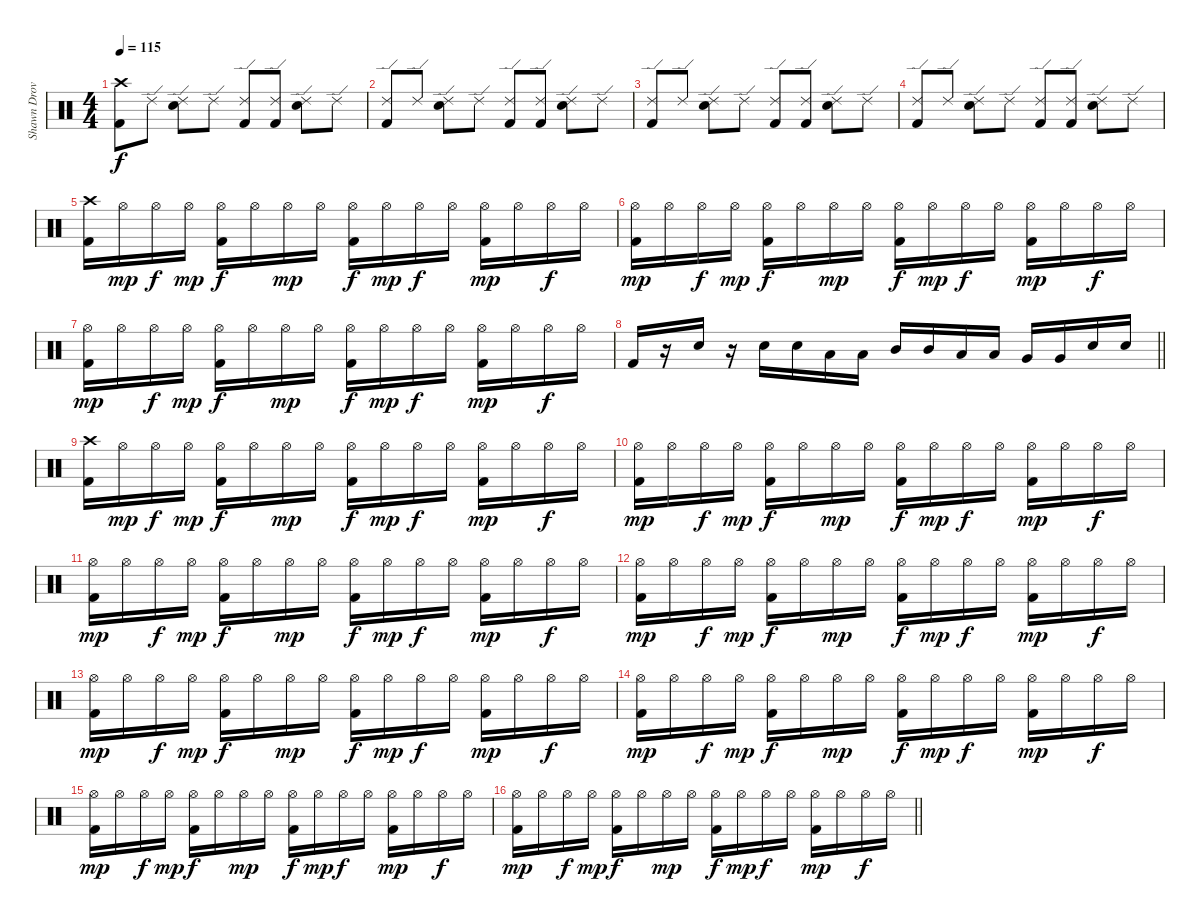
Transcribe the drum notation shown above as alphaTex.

\track ("Shawn Drover" "Shawn Drov") {instrument percussion}
\staff {score}
\articulation defaults
\ts (4 4)
\tempo 115
\clef neutral
\ks c
("Crash high (hit)" "Kick (hit) 2").8{dy f} "Ride (edge) 2".8 ("Ride (edge) 2" "Snare (hit) 2").8 "Ride (edge) 2".8 ("Ride (edge) 2" "Kick (hit) 2").8 ("Ride (edge) 2" "Kick (hit) 2").8 ("Ride (edge) 2" "Snare (hit) 2").8 "Ride (edge) 2".8 |
("Ride (edge) 2" "Kick (hit) 2").8 "Ride (edge) 2".8 ("Ride (edge) 2" "Snare (hit) 2").8 "Ride (edge) 2".8 ("Ride (edge) 2" "Kick (hit) 2").8 ("Ride (edge) 2" "Kick (hit) 2").8 ("Ride (edge) 2" "Snare (hit) 2").8 "Ride (edge) 2".8 |
("Ride (edge) 2" "Kick (hit) 2").8 "Ride (edge) 2".8 ("Ride (edge) 2" "Snare (hit) 2").8 "Ride (edge) 2".8 ("Ride (edge) 2" "Kick (hit) 2").8 ("Ride (edge) 2" "Kick (hit) 2").8 ("Ride (edge) 2" "Snare (hit) 2").8 "Ride (edge) 2".8 |
("Ride (edge) 2" "Kick (hit) 2").8 "Ride (edge) 2".8 ("Ride (edge) 2" "Snare (hit) 2").8 "Ride (edge) 2".8 ("Ride (edge) 2" "Kick (hit) 2").8 ("Ride (edge) 2" "Kick (hit) 2").8 ("Ride (edge) 2" "Snare (hit) 2").8 "Ride (edge) 2".8 |
("Crash high (hit)" "Kick (hit) 2").16 "Hi-Hat (open)".16{dy mp} "Hi-Hat (open)".16{dy f} "Hi-Hat (open)".16{dy mp} ("Hi-Hat (open)" "Kick (hit) 2").16{dy f} "Hi-Hat (open)".16 "Hi-Hat (open)".16{dy mp} "Hi-Hat (open)".16 ("Hi-Hat (open)" "Kick (hit) 2").16{dy f} "Hi-Hat (open)".16{dy mp} "Hi-Hat (open)".16{dy f} "Hi-Hat (open)".16 ("Hi-Hat (open)" "Kick (hit) 2").16{dy mp} "Hi-Hat (open)".16 "Hi-Hat (open)".16{dy f} "Hi-Hat (open)".16 |
("Hi-Hat (open)" "Kick (hit) 2").16{dy mp} "Hi-Hat (open)".16 "Hi-Hat (open)".16{dy f} "Hi-Hat (open)".16{dy mp} ("Hi-Hat (open)" "Kick (hit) 2").16{dy f} "Hi-Hat (open)".16 "Hi-Hat (open)".16{dy mp} "Hi-Hat (open)".16 ("Hi-Hat (open)" "Kick (hit) 2").16{dy f} "Hi-Hat (open)".16{dy mp} "Hi-Hat (open)".16{dy f} "Hi-Hat (open)".16 ("Hi-Hat (open)" "Kick (hit) 2").16{dy mp} "Hi-Hat (open)".16 "Hi-Hat (open)".16{dy f} "Hi-Hat (open)".16 |
("Hi-Hat (open)" "Kick (hit) 2").16{dy mp} "Hi-Hat (open)".16 "Hi-Hat (open)".16{dy f} "Hi-Hat (open)".16{dy mp} ("Hi-Hat (open)" "Kick (hit) 2").16{dy f} "Hi-Hat (open)".16 "Hi-Hat (open)".16{dy mp} "Hi-Hat (open)".16 ("Hi-Hat (open)" "Kick (hit) 2").16{dy f} "Hi-Hat (open)".16{dy mp} "Hi-Hat (open)".16{dy f} "Hi-Hat (open)".16 ("Hi-Hat (open)" "Kick (hit) 2").16{dy mp} "Hi-Hat (open)".16 "Hi-Hat (open)".16{dy f} "Hi-Hat (open)".16 |
\barLineRight lightlight "Kick (hit) 2".16
r.16 "Snare (hit) 2".16 r.16 "Snare (hit) 2".16 "Snare (hit) 2".16 "Low Tom (hit)".16 "Low Tom (hit)".16 "Mid Tom (hit)".16 "Mid Tom (hit)".16 "Low Tom (hit)".16 "Low Tom (hit)".16 "Very Low Tom (hit)".16 "Very Low Tom (hit)".16 "Snare (hit) 2".16 "Snare (hit) 2".16 |
("Crash high (hit)" "Kick (hit) 2").16 "Hi-Hat (open)".16{dy mp} "Hi-Hat (open)".16{dy f} "Hi-Hat (open)".16{dy mp} ("Hi-Hat (open)" "Kick (hit) 2").16{dy f} "Hi-Hat (open)".16 "Hi-Hat (open)".16{dy mp} "Hi-Hat (open)".16 ("Hi-Hat (open)" "Kick (hit) 2").16{dy f} "Hi-Hat (open)".16{dy mp} "Hi-Hat (open)".16{dy f} "Hi-Hat (open)".16 ("Hi-Hat (open)" "Kick (hit) 2").16{dy mp} "Hi-Hat (open)".16 "Hi-Hat (open)".16{dy f} "Hi-Hat (open)".16 |
("Hi-Hat (open)" "Kick (hit) 2").16{dy mp} "Hi-Hat (open)".16 "Hi-Hat (open)".16{dy f} "Hi-Hat (open)".16{dy mp} ("Hi-Hat (open)" "Kick (hit) 2").16{dy f} "Hi-Hat (open)".16 "Hi-Hat (open)".16{dy mp} "Hi-Hat (open)".16 ("Hi-Hat (open)" "Kick (hit) 2").16{dy f} "Hi-Hat (open)".16{dy mp} "Hi-Hat (open)".16{dy f} "Hi-Hat (open)".16 ("Hi-Hat (open)" "Kick (hit) 2").16{dy mp} "Hi-Hat (open)".16 "Hi-Hat (open)".16{dy f} "Hi-Hat (open)".16 |
("Hi-Hat (open)" "Kick (hit) 2").16{dy mp} "Hi-Hat (open)".16 "Hi-Hat (open)".16{dy f} "Hi-Hat (open)".16{dy mp} ("Hi-Hat (open)" "Kick (hit) 2").16{dy f} "Hi-Hat (open)".16 "Hi-Hat (open)".16{dy mp} "Hi-Hat (open)".16 ("Hi-Hat (open)" "Kick (hit) 2").16{dy f} "Hi-Hat (open)".16{dy mp} "Hi-Hat (open)".16{dy f} "Hi-Hat (open)".16 ("Hi-Hat (open)" "Kick (hit) 2").16{dy mp} "Hi-Hat (open)".16 "Hi-Hat (open)".16{dy f} "Hi-Hat (open)".16 |
("Hi-Hat (open)" "Kick (hit) 2").16{dy mp} "Hi-Hat (open)".16 "Hi-Hat (open)".16{dy f} "Hi-Hat (open)".16{dy mp} ("Hi-Hat (open)" "Kick (hit) 2").16{dy f} "Hi-Hat (open)".16 "Hi-Hat (open)".16{dy mp} "Hi-Hat (open)".16 ("Hi-Hat (open)" "Kick (hit) 2").16{dy f} "Hi-Hat (open)".16{dy mp} "Hi-Hat (open)".16{dy f} "Hi-Hat (open)".16 ("Hi-Hat (open)" "Kick (hit) 2").16{dy mp} "Hi-Hat (open)".16 "Hi-Hat (open)".16{dy f} "Hi-Hat (open)".16 |
("Hi-Hat (open)" "Kick (hit) 2").16{dy mp} "Hi-Hat (open)".16 "Hi-Hat (open)".16{dy f} "Hi-Hat (open)".16{dy mp} ("Hi-Hat (open)" "Kick (hit) 2").16{dy f} "Hi-Hat (open)".16 "Hi-Hat (open)".16{dy mp} "Hi-Hat (open)".16 ("Hi-Hat (open)" "Kick (hit) 2").16{dy f} "Hi-Hat (open)".16{dy mp} "Hi-Hat (open)".16{dy f} "Hi-Hat (open)".16 ("Hi-Hat (open)" "Kick (hit) 2").16{dy mp} "Hi-Hat (open)".16 "Hi-Hat (open)".16{dy f} "Hi-Hat (open)".16 |
("Hi-Hat (open)" "Kick (hit) 2").16{dy mp} "Hi-Hat (open)".16 "Hi-Hat (open)".16{dy f} "Hi-Hat (open)".16{dy mp} ("Hi-Hat (open)" "Kick (hit) 2").16{dy f} "Hi-Hat (open)".16 "Hi-Hat (open)".16{dy mp} "Hi-Hat (open)".16 ("Hi-Hat (open)" "Kick (hit) 2").16{dy f} "Hi-Hat (open)".16{dy mp} "Hi-Hat (open)".16{dy f} "Hi-Hat (open)".16 ("Hi-Hat (open)" "Kick (hit) 2").16{dy mp} "Hi-Hat (open)".16 "Hi-Hat (open)".16{dy f} "Hi-Hat (open)".16 |
("Hi-Hat (open)" "Kick (hit) 2").16{dy mp} "Hi-Hat (open)".16 "Hi-Hat (open)".16{dy f} "Hi-Hat (open)".16{dy mp} ("Hi-Hat (open)" "Kick (hit) 2").16{dy f} "Hi-Hat (open)".16 "Hi-Hat (open)".16{dy mp} "Hi-Hat (open)".16 ("Hi-Hat (open)" "Kick (hit) 2").16{dy f} "Hi-Hat (open)".16{dy mp} "Hi-Hat (open)".16{dy f} "Hi-Hat (open)".16 ("Hi-Hat (open)" "Kick (hit) 2").16{dy mp} "Hi-Hat (open)".16 "Hi-Hat (open)".16{dy f} "Hi-Hat (open)".16 |
\barLineRight lightlight
("Hi-Hat (open)" "Kick (hit) 2").16{dy mp} "Hi-Hat (open)".16 "Hi-Hat (open)".16{dy f} "Hi-Hat (open)".16{dy mp} ("Hi-Hat (open)" "Kick (hit) 2").16{dy f} "Hi-Hat (open)".16 "Hi-Hat (open)".16{dy mp} "Hi-Hat (open)".16 ("Hi-Hat (open)" "Kick (hit) 2").16{dy f} "Hi-Hat (open)".16{dy mp} "Hi-Hat (open)".16{dy f} "Hi-Hat (open)".16 ("Hi-Hat (open)" "Kick (hit) 2").16{dy mp} "Hi-Hat (open)".16 "Hi-Hat (open)".16{dy f} "Hi-Hat (open)".16
